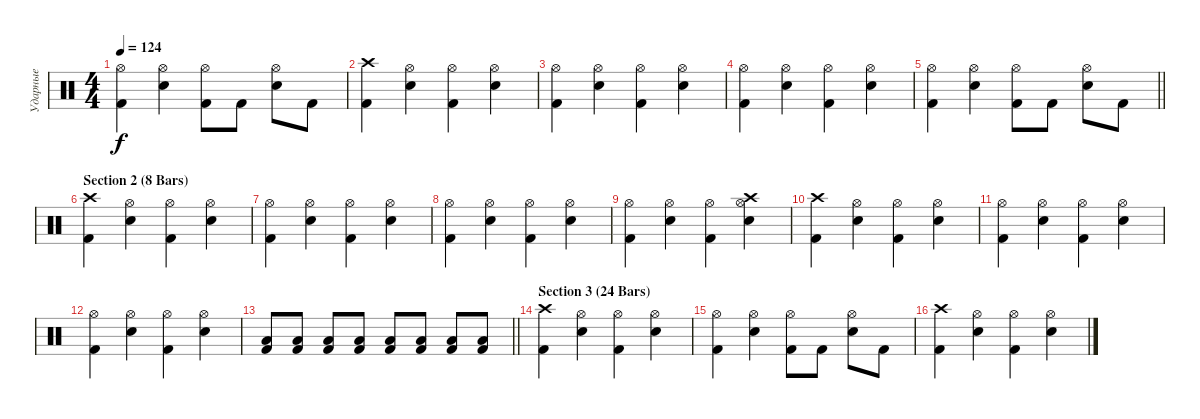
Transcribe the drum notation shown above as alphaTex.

\track ("Ударные" "Ударные") {instrument percussion}
\staff {score}
\articulation defaults
\ts (4 4)
\tempo 124
\clef neutral
\ks c
("Kick (hit) 2" "Hi-Hat (open)").4{dy f} ("Electric Snare (hit)" "Hi-Hat (open)").4 ("Kick (hit) 2" "Hi-Hat (open)").8 "Kick (hit) 2".8 ("Electric Snare (hit)" "Hi-Hat (open)").8 "Kick (hit) 2".8 |
("Crash high (hit)" "Kick (hit) 2").4 ("Electric Snare (hit)" "Hi-Hat (open)").4 ("Kick (hit) 2" "Hi-Hat (open)").4 ("Electric Snare (hit)" "Hi-Hat (open)").4 |
("Kick (hit) 2" "Hi-Hat (open)").4 ("Electric Snare (hit)" "Hi-Hat (open)").4 ("Kick (hit) 2" "Hi-Hat (open)").4 ("Electric Snare (hit)" "Hi-Hat (open)").4 |
("Kick (hit) 2" "Hi-Hat (open)").4 ("Electric Snare (hit)" "Hi-Hat (open)").4 ("Kick (hit) 2" "Hi-Hat (open)").4 ("Electric Snare (hit)" "Hi-Hat (open)").4 |
\barLineRight lightlight
("Kick (hit) 2" "Hi-Hat (open)").4 ("Electric Snare (hit)" "Hi-Hat (open)").4 ("Kick (hit) 2" "Hi-Hat (open)").8 "Kick (hit) 2".8 ("Electric Snare (hit)" "Hi-Hat (open)").8 "Kick (hit) 2".8 |
\section ("" "Section 2 (8 Bars)")
("Crash high (hit)" "Kick (hit) 2").4 ("Electric Snare (hit)" "Hi-Hat (open)").4 ("Kick (hit) 2" "Hi-Hat (open)").4 ("Electric Snare (hit)" "Hi-Hat (open)").4 |
("Kick (hit) 2" "Hi-Hat (open)").4 ("Electric Snare (hit)" "Hi-Hat (open)").4 ("Kick (hit) 2" "Hi-Hat (open)").4 ("Electric Snare (hit)" "Hi-Hat (open)").4 |
("Kick (hit) 2" "Hi-Hat (open)").4 ("Electric Snare (hit)" "Hi-Hat (open)").4 ("Kick (hit) 2" "Hi-Hat (open)").4 ("Electric Snare (hit)" "Hi-Hat (open)").4 |
("Kick (hit) 2" "Hi-Hat (open)").4 ("Electric Snare (hit)" "Hi-Hat (open)").4 ("Kick (hit) 2" "Hi-Hat (open)").4 ("Electric Snare (hit)" "Hi-Hat (open)" "Crash high (hit)").4 |
("Crash high (hit)" "Kick (hit) 2").4 ("Electric Snare (hit)" "Hi-Hat (open)").4 ("Kick (hit) 2" "Hi-Hat (open)").4 ("Electric Snare (hit)" "Hi-Hat (open)").4 |
("Kick (hit) 2" "Hi-Hat (open)").4 ("Electric Snare (hit)" "Hi-Hat (open)").4 ("Kick (hit) 2" "Hi-Hat (open)").4 ("Electric Snare (hit)" "Hi-Hat (open)").4 |
("Kick (hit) 2" "Hi-Hat (open)").4 ("Electric Snare (hit)" "Hi-Hat (open)").4 ("Kick (hit) 2" "Hi-Hat (open)").4 ("Electric Snare (hit)" "Hi-Hat (open)").4 |
\barLineRight lightlight
("Low Floor Tom (hit)" "Kick (hit) 2").8 ("Low Floor Tom (hit)" "Kick (hit) 2").8 ("Low Floor Tom (hit)" "Kick (hit) 2").8 ("Low Floor Tom (hit)" "Kick (hit) 2").8 ("Low Floor Tom (hit)" "Kick (hit) 2").8 ("Low Floor Tom (hit)" "Kick (hit) 2").8 ("Low Floor Tom (hit)" "Kick (hit) 2").8 ("Low Floor Tom (hit)" "Kick (hit) 2").8 |
\section ("" "Section 3 (24 Bars)")
("Crash high (hit)" "Kick (hit) 2").4 ("Electric Snare (hit)" "Hi-Hat (open)").4 ("Kick (hit) 2" "Hi-Hat (open)").4 ("Electric Snare (hit)" "Hi-Hat (open)").4 |
("Kick (hit) 2" "Hi-Hat (open)").4 ("Electric Snare (hit)" "Hi-Hat (open)").4 ("Kick (hit) 2" "Hi-Hat (open)").8 "Kick (hit) 2".8 ("Electric Snare (hit)" "Hi-Hat (open)").8 "Kick (hit) 2".8 |
("Crash high (hit)" "Kick (hit) 2").4 ("Electric Snare (hit)" "Hi-Hat (open)").4 ("Kick (hit) 2" "Hi-Hat (open)").4 ("Electric Snare (hit)" "Hi-Hat (open)").4
